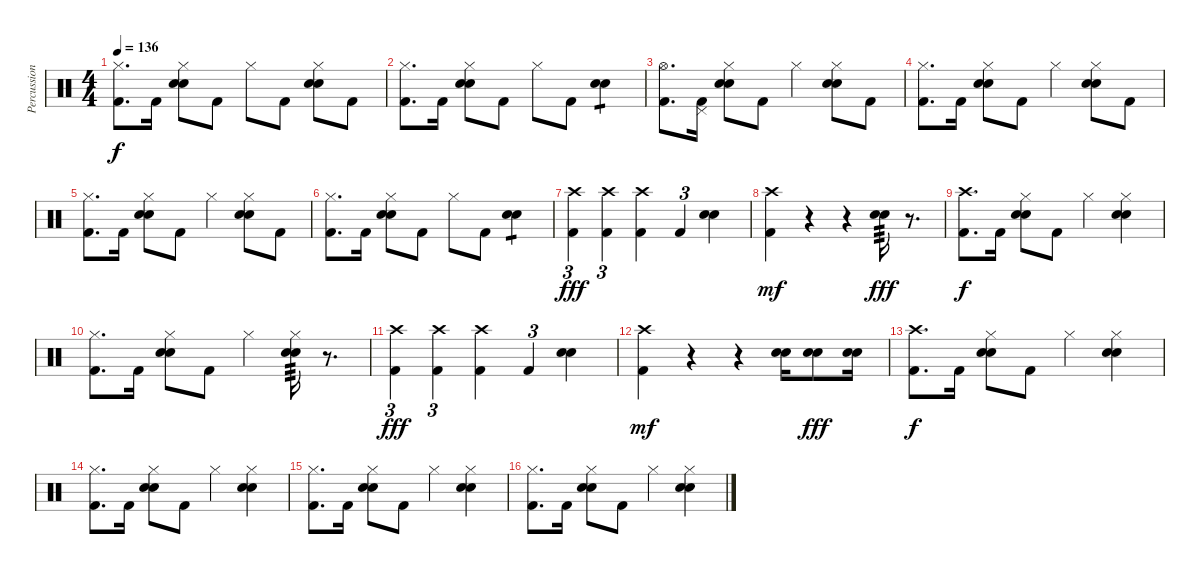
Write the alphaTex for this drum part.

\track ("Percussion" "Percussion") {instrument percussion}
\staff {score}
\articulation defaults
\ts (4 4)
\tempo 136
\clef neutral
\ks c
("Hi-Hat (closed)" "Kick (hit) 2").8{d dy f} "Kick (hit) 2".16 ("Hi-Hat (closed)" "Electric Snare (hit)" "Snare (hit) 2").8 "Kick (hit) 2".8 "Hi-Hat (closed)".8 "Kick (hit) 2".8 ("Hi-Hat (closed)" "Electric Snare (hit)" "Snare (hit) 2").8 "Kick (hit) 2".8 |
("Hi-Hat (closed)" "Kick (hit) 2").8{d} "Kick (hit) 2".16 ("Hi-Hat (closed)" "Electric Snare (hit)" "Snare (hit) 2").8 "Kick (hit) 2".8 "Hi-Hat (closed)".8 "Kick (hit) 2".8 ("Electric Snare (hit)" "Snare (hit) 2").4{tp 1} |
("Hi-Hat (open)" "Kick (hit) 2").8{d} ("Pedal Hi-Hat (hit)" "Kick (hit) 2").16 ("Hi-Hat (closed)" "Electric Snare (hit)" "Snare (hit) 2").8 "Kick (hit) 2".8 "Hi-Hat (closed)".4 ("Hi-Hat (closed)" "Electric Snare (hit)" "Snare (hit) 2").8 "Kick (hit) 2".8 |
("Hi-Hat (closed)" "Kick (hit) 2").8{d} "Kick (hit) 2".16 ("Hi-Hat (closed)" "Electric Snare (hit)" "Snare (hit) 2").8 "Kick (hit) 2".8 "Hi-Hat (closed)".4 ("Hi-Hat (closed)" "Electric Snare (hit)" "Snare (hit) 2").8 "Kick (hit) 2".8 |
("Hi-Hat (closed)" "Kick (hit) 2").8{d} "Kick (hit) 2".16 ("Hi-Hat (closed)" "Electric Snare (hit)" "Snare (hit) 2").8 "Kick (hit) 2".8 "Hi-Hat (closed)".4 ("Hi-Hat (closed)" "Electric Snare (hit)" "Snare (hit) 2").8 "Kick (hit) 2".8 |
("Hi-Hat (closed)" "Kick (hit) 2").8{d} "Kick (hit) 2".16 ("Hi-Hat (closed)" "Electric Snare (hit)" "Snare (hit) 2").8 "Kick (hit) 2".8 "Hi-Hat (closed)".8 "Kick (hit) 2".8 ("Electric Snare (hit)" "Snare (hit) 2").4{tp 1} |
("Crash high (hit)" "Kick (hit) 2").4{tu (3 2) dy fff} ("Crash high (hit)" "Kick (hit) 2").4{tu (3 2)} ("Crash high (hit)" "Kick (hit) 2").4 "Kick (hit) 2".4{tu (3 2)} ("Electric Snare (hit)" "Snare (hit) 2").4 |
("Crash high (hit)" "Kick (hit) 2").4{dy mf} r.4 r.4 ("Electric Snare (hit)" "Snare (hit) 2").16{tp 3 dy fff} r.8{d} |
("Crash high (hit)" "Kick (hit) 2").8{d dy f} "Kick (hit) 2".16 ("Hi-Hat (closed)" "Electric Snare (hit)" "Snare (hit) 2").8 "Kick (hit) 2".8 "Hi-Hat (closed)".4 ("Hi-Hat (closed)" "Electric Snare (hit)" "Snare (hit) 2").4 |
("Hi-Hat (closed)" "Kick (hit) 2").8{d} "Kick (hit) 2".16 ("Hi-Hat (closed)" "Electric Snare (hit)" "Snare (hit) 2").8 "Kick (hit) 2".8 "Hi-Hat (closed)".4 ("Hi-Hat (closed)" "Electric Snare (hit)" "Snare (hit) 2").16{tp 3} r.8{d} |
("Crash high (hit)" "Kick (hit) 2").4{tu (3 2) dy fff} ("Crash high (hit)" "Kick (hit) 2").4{tu (3 2)} ("Crash high (hit)" "Kick (hit) 2").4 "Kick (hit) 2".4{tu (3 2)} ("Electric Snare (hit)" "Snare (hit) 2").4 |
("Crash high (hit)" "Kick (hit) 2").4{dy mf} r.4 r.4 ("Electric Snare (hit)" "Snare (hit) 2").16 ("Electric Snare (hit)" "Snare (hit) 2").8{dy fff} ("Electric Snare (hit)" "Snare (hit) 2").16 |
("Crash high (hit)" "Kick (hit) 2").8{d dy f} "Kick (hit) 2".16 ("Hi-Hat (closed)" "Electric Snare (hit)" "Snare (hit) 2").8 "Kick (hit) 2".8 "Hi-Hat (closed)".4 ("Hi-Hat (closed)" "Electric Snare (hit)" "Snare (hit) 2").4 |
("Hi-Hat (closed)" "Kick (hit) 2").8{d} "Kick (hit) 2".16 ("Hi-Hat (closed)" "Electric Snare (hit)" "Snare (hit) 2").8 "Kick (hit) 2".8 "Hi-Hat (closed)".4 ("Hi-Hat (closed)" "Electric Snare (hit)" "Snare (hit) 2").4 |
("Hi-Hat (closed)" "Kick (hit) 2").8{d} "Kick (hit) 2".16 ("Hi-Hat (closed)" "Electric Snare (hit)" "Snare (hit) 2").8 "Kick (hit) 2".8 "Hi-Hat (closed)".4 ("Hi-Hat (closed)" "Electric Snare (hit)" "Snare (hit) 2").4 |
("Hi-Hat (closed)" "Kick (hit) 2").8{d} "Kick (hit) 2".16 ("Hi-Hat (closed)" "Electric Snare (hit)" "Snare (hit) 2").8 "Kick (hit) 2".8 "Hi-Hat (closed)".4 ("Hi-Hat (closed)" "Electric Snare (hit)" "Snare (hit) 2").4
